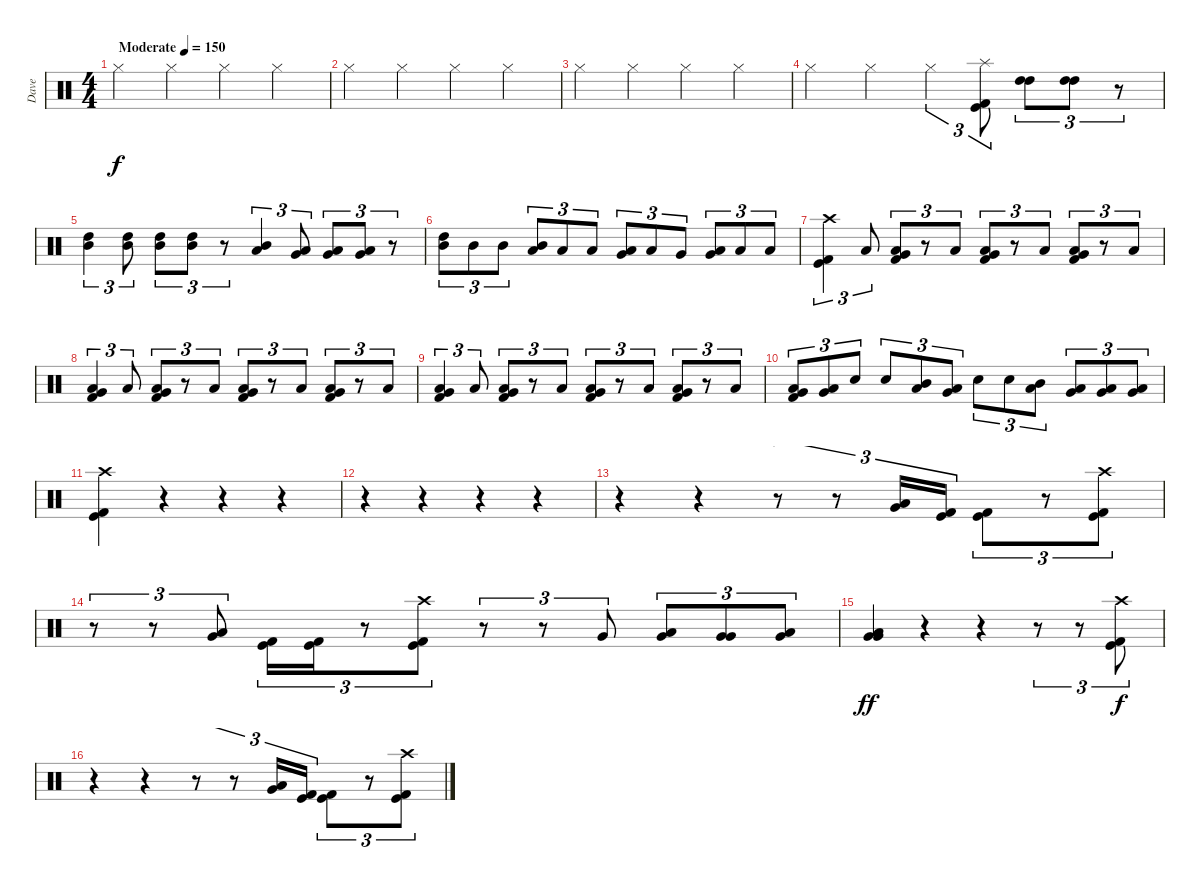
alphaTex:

\track ("Dave" "Dave") {instrument percussion}
\staff {score}
\articulation defaults
\ts (4 4)
\tempo (150 "Moderate")
\clef neutral
\ks c "Hi-Hat (closed)".4{dy f volume 16} "Hi-Hat (closed)".4 "Hi-Hat (closed)".4 "Hi-Hat (closed)".4
|
"Hi-Hat (closed)".4 "Hi-Hat (closed)".4 "Hi-Hat (closed)".4 "Hi-Hat (closed)".4 |
"Hi-Hat (closed)".4 "Hi-Hat (closed)".4 "Hi-Hat (closed)".4 "Hi-Hat (closed)".4 |
"Hi-Hat (closed)".4 "Hi-Hat (closed)".4 "Hi-Hat (closed)".4{tu (3 2)} ("Splash (hit)" "Kick (hit)" "Kick (hit) 2").8{tu (3 2)} ("High Tom (hit)" "High Tom (hit)").8{tu (3 2)} ("High Tom (hit)" "High Tom (hit)").8{tu (3 2)} r.8{tu (3 2)} |
("High Tom (hit)" "Mid Tom (hit)").4{tu (3 2)} ("High Tom (hit)" "Mid Tom (hit)").8{tu (3 2)} ("High Tom (hit)" "Mid Tom (hit)").8{tu (3 2)} ("High Tom (hit)" "Mid Tom (hit)").8{tu (3 2)} r.8{tu (3 2)} ("Mid Tom (hit)" "Low Tom (hit)").4{tu (3 2)} ("Low Tom (hit)" "Very Low Tom (hit)").8{tu (3 2)} ("Low Tom (hit)" "Very Low Tom (hit)").8{tu (3 2)} ("Low Tom (hit)" "Very Low Tom (hit)").8{tu (3 2)} r.8{tu (3 2)} |
("Mid Tom (hit)" "High Tom (hit)").8{tu (3 2)} "Mid Tom (hit)".8{tu (3 2)} "Mid Tom (hit)".8{tu (3 2)} ("Low Tom (hit)" "Mid Tom (hit)").8{tu (3 2)} "Low Tom (hit)".8{tu (3 2)} "Low Tom (hit)".8{tu (3 2)} ("Low Tom (hit)" "Very Low Tom (hit)").8{tu (3 2)} "Low Tom (hit)".8{tu (3 2)} "Very Low Tom (hit)".8{tu (3 2)} ("Very Low Tom (hit)" "Low Floor Tom (hit)").8{tu (3 2)} "Low Floor Tom (hit)".8{tu (3 2)} "Low Floor Tom (hit)".8{tu (3 2)} |
("Crash high (hit)" "Kick (hit)" "Kick (hit) 2").4{tu (3 2)} "Low Floor Tom (hit)".8{tu (3 2)} ("Low Floor Tom (hit)" "Very Low Tom (hit)" "Kick (hit) 2").8{tu (3 2) bd 120} r.8{tu (3 2)} "Low Floor Tom (hit)".8{tu (3 2)} ("Low Floor Tom (hit)" "Very Low Tom (hit)" "Kick (hit) 2").8{tu (3 2) bd 120} r.8{tu (3 2)} "Low Floor Tom (hit)".8{tu (3 2)} ("Low Floor Tom (hit)" "Very Low Tom (hit)" "Kick (hit) 2").8{tu (3 2) bd 120} r.8{tu (3 2)} "Low Floor Tom (hit)".8{tu (3 2)} |
("Low Floor Tom (hit)" "Very Low Tom (hit)" "Kick (hit) 2").4{tu (3 2) bd 120} "Low Floor Tom (hit)".8{tu (3 2)} ("Low Floor Tom (hit)" "Very Low Tom (hit)" "Kick (hit) 2").8{tu (3 2) bd 120} r.8{tu (3 2)} "Low Floor Tom (hit)".8{tu (3 2)} ("Low Floor Tom (hit)" "Very Low Tom (hit)" "Kick (hit) 2").8{tu (3 2) bd 120} r.8{tu (3 2)} "Low Floor Tom (hit)".8{tu (3 2)} ("Low Floor Tom (hit)" "Very Low Tom (hit)" "Kick (hit) 2").8{tu (3 2) bd 120} r.8{tu (3 2)} "Low Floor Tom (hit)".8{tu (3 2)} |
("Low Floor Tom (hit)" "Very Low Tom (hit)" "Kick (hit) 2").4{tu (3 2) bd 120} "Low Floor Tom (hit)".8{tu (3 2)} ("Low Floor Tom (hit)" "Very Low Tom (hit)" "Kick (hit) 2").8{tu (3 2) bd 120} r.8{tu (3 2)} "Low Floor Tom (hit)".8{tu (3 2)} ("Low Floor Tom (hit)" "Very Low Tom (hit)" "Kick (hit) 2").8{tu (3 2) bd 120} r.8{tu (3 2)} "Low Floor Tom (hit)".8{tu (3 2)} ("Low Floor Tom (hit)" "Very Low Tom (hit)" "Kick (hit) 2").8{tu (3 2) bd 120} r.8{tu (3 2)} "Low Floor Tom (hit)".8{tu (3 2)} |
("Low Floor Tom (hit)" "Very Low Tom (hit)" "Kick (hit) 2").8{tu (3 2) bd 120} ("Low Floor Tom (hit)" "Very Low Tom (hit)").8{tu (3 2)} "Electric Snare (hit)".8{tu (3 2)} "Electric Snare (hit)".8{tu (3 2)} ("Mid Tom (hit)" "Low Tom (hit)").8{tu (3 2)} ("Low Tom (hit)" "Very Low Tom (hit)").8{tu (3 2)} "Electric Snare (hit)".8{tu (3 2)} "Electric Snare (hit)".8{tu (3 2)} ("Mid Tom (hit)" "Low Tom (hit)").8{tu (3 2)} ("Low Tom (hit)" "Very Low Tom (hit)").8{tu (3 2)} ("Low Tom (hit)" "Very Low Tom (hit)").8{tu (3 2)} ("Very Low Tom (hit)" "Low Floor Tom (hit)").8{tu (3 2)} |
("Crash high (hit)" "Kick (hit)" "Kick (hit) 2").4 r.4 r.4 r.4 |
r.4 r.4 r.4 r.4 |
r.4 r.4 r.8{tu (3 2)} r.8{tu (3 2)} ("Very Low Tom (hit)" "Low Floor Tom (hit)").16{tu (3 2)} ("Kick (hit)" "Kick (hit) 2").16{tu (3 2)} ("Kick (hit)" "Kick (hit) 2").8{tu (3 2)} r.8{tu (3 2)} ("Crash high (hit)" "Kick (hit)" "Kick (hit) 2").8{tu (3 2)} |
r.8{tu (3 2)} r.8{tu (3 2)} ("Very Low Tom (hit)" "Low Floor Tom (hit)").8{tu (3 2)} ("Kick (hit)" "Kick (hit) 2").16{tu (3 2)} ("Kick (hit)" "Kick (hit) 2").16{tu (3 2)} r.8{tu (3 2)} ("Crash high (hit)" "Kick (hit)" "Kick (hit) 2").8{tu (3 2)} r.8{tu (3 2)} r.8{tu (3 2)} "Very Low Tom (hit)".8{tu (3 2)} ("Low Tom (hit)" "Very Low Tom (hit)").8{tu (3 2)} ("Very Low Tom (hit)" "Very Low Tom (hit)").8{tu (3 2)} ("Very Low Tom (hit)" "Low Floor Tom (hit)").8{tu (3 2)} |
("Very Low Tom (hit)" "Very Low Tom (hit)" "Low Floor Tom (hit)").4{bd 120 dy ff} r.4 r.4 r.8{tu (3 2)} r.8{tu (3 2)} ("Crash high (hit)" "Kick (hit)" "Kick (hit) 2").8{tu (3 2) dy f} |
r.4 r.4 r.8{tu (3 2)} r.8{tu (3 2)} ("Very Low Tom (hit)" "Low Floor Tom (hit)").16{tu (3 2)} ("Kick (hit)" "Kick (hit) 2").16{tu (3 2)} ("Kick (hit)" "Kick (hit) 2").8{tu (3 2)} r.8{tu (3 2)} ("Crash high (hit)" "Kick (hit)" "Kick (hit) 2").8{tu (3 2)}
